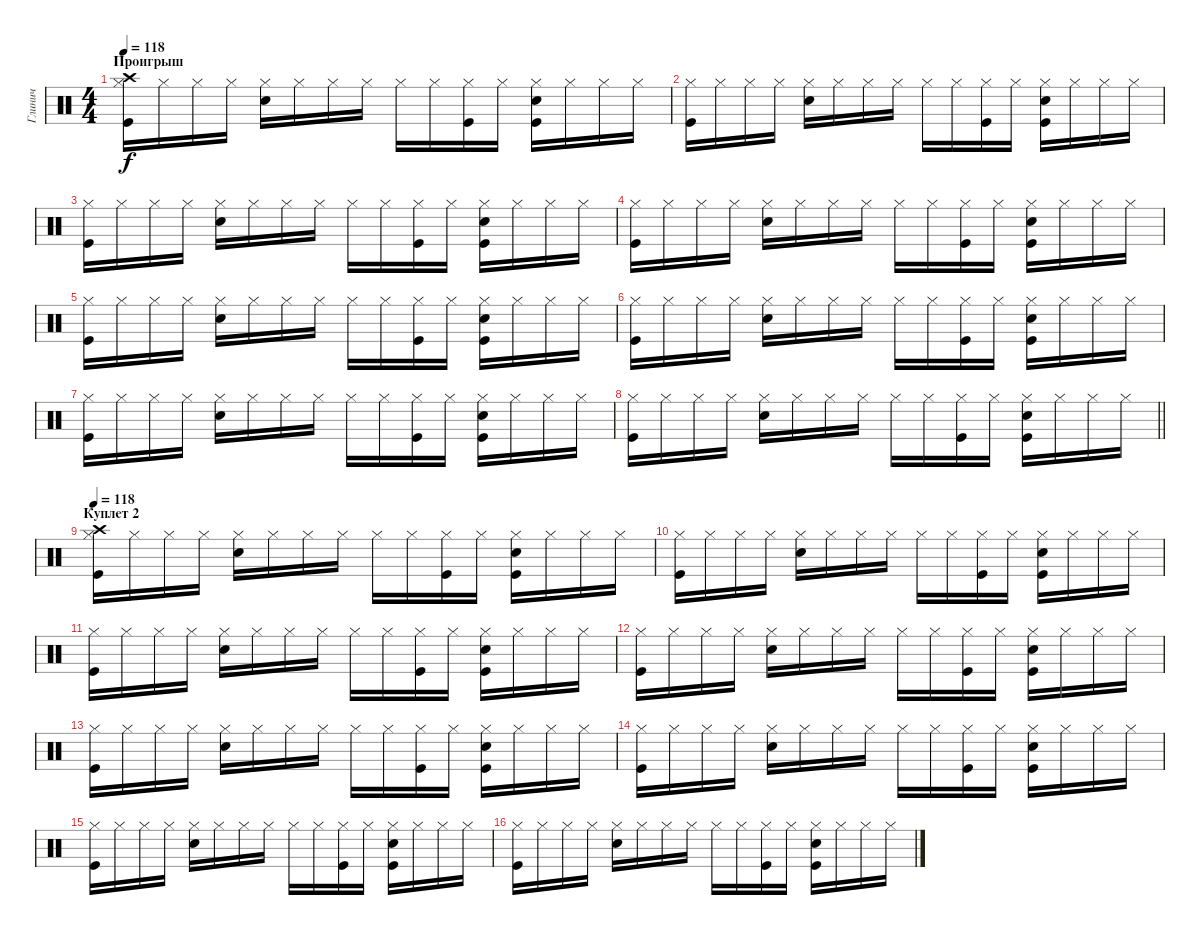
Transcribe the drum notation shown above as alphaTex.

\track ("Глинич" "Глинич") {instrument percussion}
\staff {score}
\articulation defaults
\ts (4 4)
\section ("" "Проигрыш")
\tempo 118
\clef neutral
\ks c
("Hi-Hat (closed)" "Kick (hit)" "Crash high (hit)").16{dy f} "Hi-Hat (closed)".16 "Hi-Hat (closed)".16 "Hi-Hat (closed)".16 ("Hi-Hat (closed)" "Snare (hit) 2").16 "Hi-Hat (closed)".16 "Hi-Hat (closed)".16 "Hi-Hat (closed)".16 "Hi-Hat (closed)".16 "Hi-Hat (closed)".16 ("Hi-Hat (closed)" "Kick (hit)").16 "Hi-Hat (closed)".16 ("Hi-Hat (closed)" "Snare (hit) 2" "Kick (hit)").16 "Hi-Hat (closed)".16 "Hi-Hat (closed)".16 "Hi-Hat (closed)".16 |
("Hi-Hat (closed)" "Kick (hit)").16 "Hi-Hat (closed)".16 "Hi-Hat (closed)".16 "Hi-Hat (closed)".16 ("Hi-Hat (closed)" "Snare (hit) 2").16 "Hi-Hat (closed)".16 "Hi-Hat (closed)".16 "Hi-Hat (closed)".16 "Hi-Hat (closed)".16 "Hi-Hat (closed)".16 ("Hi-Hat (closed)" "Kick (hit)").16 "Hi-Hat (closed)".16 ("Hi-Hat (closed)" "Snare (hit) 2" "Kick (hit)").16 "Hi-Hat (closed)".16 "Hi-Hat (closed)".16 "Hi-Hat (closed)".16 |
("Hi-Hat (closed)" "Kick (hit)").16 "Hi-Hat (closed)".16 "Hi-Hat (closed)".16 "Hi-Hat (closed)".16 ("Hi-Hat (closed)" "Snare (hit) 2").16 "Hi-Hat (closed)".16 "Hi-Hat (closed)".16 "Hi-Hat (closed)".16 "Hi-Hat (closed)".16 "Hi-Hat (closed)".16 ("Hi-Hat (closed)" "Kick (hit)").16 "Hi-Hat (closed)".16 ("Hi-Hat (closed)" "Snare (hit) 2" "Kick (hit)").16 "Hi-Hat (closed)".16 "Hi-Hat (closed)".16 "Hi-Hat (closed)".16 |
("Hi-Hat (closed)" "Kick (hit)").16 "Hi-Hat (closed)".16 "Hi-Hat (closed)".16 "Hi-Hat (closed)".16 ("Hi-Hat (closed)" "Snare (hit) 2").16 "Hi-Hat (closed)".16 "Hi-Hat (closed)".16 "Hi-Hat (closed)".16 "Hi-Hat (closed)".16 "Hi-Hat (closed)".16 ("Hi-Hat (closed)" "Kick (hit)").16 "Hi-Hat (closed)".16 ("Hi-Hat (closed)" "Snare (hit) 2" "Kick (hit)").16 "Hi-Hat (closed)".16 "Hi-Hat (closed)".16 "Hi-Hat (closed)".16 |
("Hi-Hat (closed)" "Kick (hit)").16 "Hi-Hat (closed)".16 "Hi-Hat (closed)".16 "Hi-Hat (closed)".16 ("Hi-Hat (closed)" "Snare (hit) 2").16 "Hi-Hat (closed)".16 "Hi-Hat (closed)".16 "Hi-Hat (closed)".16 "Hi-Hat (closed)".16 "Hi-Hat (closed)".16 ("Hi-Hat (closed)" "Kick (hit)").16 "Hi-Hat (closed)".16 ("Hi-Hat (closed)" "Snare (hit) 2" "Kick (hit)").16 "Hi-Hat (closed)".16 "Hi-Hat (closed)".16 "Hi-Hat (closed)".16 |
("Hi-Hat (closed)" "Kick (hit)").16 "Hi-Hat (closed)".16 "Hi-Hat (closed)".16 "Hi-Hat (closed)".16 ("Hi-Hat (closed)" "Snare (hit) 2").16 "Hi-Hat (closed)".16 "Hi-Hat (closed)".16 "Hi-Hat (closed)".16 "Hi-Hat (closed)".16 "Hi-Hat (closed)".16 ("Hi-Hat (closed)" "Kick (hit)").16 "Hi-Hat (closed)".16 ("Hi-Hat (closed)" "Snare (hit) 2" "Kick (hit)").16 "Hi-Hat (closed)".16 "Hi-Hat (closed)".16 "Hi-Hat (closed)".16 |
("Hi-Hat (closed)" "Kick (hit)").16 "Hi-Hat (closed)".16 "Hi-Hat (closed)".16 "Hi-Hat (closed)".16 ("Hi-Hat (closed)" "Snare (hit) 2").16 "Hi-Hat (closed)".16 "Hi-Hat (closed)".16 "Hi-Hat (closed)".16 "Hi-Hat (closed)".16 "Hi-Hat (closed)".16 ("Hi-Hat (closed)" "Kick (hit)").16 "Hi-Hat (closed)".16 ("Hi-Hat (closed)" "Snare (hit) 2" "Kick (hit)").16 "Hi-Hat (closed)".16 "Hi-Hat (closed)".16 "Hi-Hat (closed)".16 |
\barLineRight lightlight
("Hi-Hat (closed)" "Kick (hit)").16 "Hi-Hat (closed)".16 "Hi-Hat (closed)".16 "Hi-Hat (closed)".16 ("Hi-Hat (closed)" "Snare (hit) 2").16 "Hi-Hat (closed)".16 "Hi-Hat (closed)".16 "Hi-Hat (closed)".16 "Hi-Hat (closed)".16 "Hi-Hat (closed)".16 ("Hi-Hat (closed)" "Kick (hit)").16 "Hi-Hat (closed)".16 ("Hi-Hat (closed)" "Snare (hit) 2" "Kick (hit)").16 "Hi-Hat (closed)".16 "Hi-Hat (closed)".16 "Hi-Hat (closed)".16 |
\section ("" "Куплет 2")
\tempo 118
("Hi-Hat (closed)" "Kick (hit)" "Crash high (hit)").16 "Hi-Hat (closed)".16 "Hi-Hat (closed)".16 "Hi-Hat (closed)".16 ("Hi-Hat (closed)" "Snare (hit) 2").16 "Hi-Hat (closed)".16 "Hi-Hat (closed)".16 "Hi-Hat (closed)".16 "Hi-Hat (closed)".16 "Hi-Hat (closed)".16 ("Hi-Hat (closed)" "Kick (hit)").16 "Hi-Hat (closed)".16 ("Hi-Hat (closed)" "Snare (hit) 2" "Kick (hit)").16 "Hi-Hat (closed)".16 "Hi-Hat (closed)".16 "Hi-Hat (closed)".16 |
("Hi-Hat (closed)" "Kick (hit)").16 "Hi-Hat (closed)".16 "Hi-Hat (closed)".16 "Hi-Hat (closed)".16 ("Hi-Hat (closed)" "Snare (hit) 2").16 "Hi-Hat (closed)".16 "Hi-Hat (closed)".16 "Hi-Hat (closed)".16 "Hi-Hat (closed)".16 "Hi-Hat (closed)".16 ("Hi-Hat (closed)" "Kick (hit)").16 "Hi-Hat (closed)".16 ("Hi-Hat (closed)" "Snare (hit) 2" "Kick (hit)").16 "Hi-Hat (closed)".16 "Hi-Hat (closed)".16 "Hi-Hat (closed)".16 |
("Hi-Hat (closed)" "Kick (hit)").16 "Hi-Hat (closed)".16 "Hi-Hat (closed)".16 "Hi-Hat (closed)".16 ("Hi-Hat (closed)" "Snare (hit) 2").16 "Hi-Hat (closed)".16 "Hi-Hat (closed)".16 "Hi-Hat (closed)".16 "Hi-Hat (closed)".16 "Hi-Hat (closed)".16 ("Hi-Hat (closed)" "Kick (hit)").16 "Hi-Hat (closed)".16 ("Hi-Hat (closed)" "Snare (hit) 2" "Kick (hit)").16 "Hi-Hat (closed)".16 "Hi-Hat (closed)".16 "Hi-Hat (closed)".16 |
("Hi-Hat (closed)" "Kick (hit)").16 "Hi-Hat (closed)".16 "Hi-Hat (closed)".16 "Hi-Hat (closed)".16 ("Hi-Hat (closed)" "Snare (hit) 2").16 "Hi-Hat (closed)".16 "Hi-Hat (closed)".16 "Hi-Hat (closed)".16 "Hi-Hat (closed)".16 "Hi-Hat (closed)".16 ("Hi-Hat (closed)" "Kick (hit)").16 "Hi-Hat (closed)".16 ("Hi-Hat (closed)" "Snare (hit) 2" "Kick (hit)").16 "Hi-Hat (closed)".16 "Hi-Hat (closed)".16 "Hi-Hat (closed)".16 |
("Hi-Hat (closed)" "Kick (hit)").16 "Hi-Hat (closed)".16 "Hi-Hat (closed)".16 "Hi-Hat (closed)".16 ("Hi-Hat (closed)" "Snare (hit) 2").16 "Hi-Hat (closed)".16 "Hi-Hat (closed)".16 "Hi-Hat (closed)".16 "Hi-Hat (closed)".16 "Hi-Hat (closed)".16 ("Hi-Hat (closed)" "Kick (hit)").16 "Hi-Hat (closed)".16 ("Hi-Hat (closed)" "Snare (hit) 2" "Kick (hit)").16 "Hi-Hat (closed)".16 "Hi-Hat (closed)".16 "Hi-Hat (closed)".16 |
("Hi-Hat (closed)" "Kick (hit)").16 "Hi-Hat (closed)".16 "Hi-Hat (closed)".16 "Hi-Hat (closed)".16 ("Hi-Hat (closed)" "Snare (hit) 2").16 "Hi-Hat (closed)".16 "Hi-Hat (closed)".16 "Hi-Hat (closed)".16 "Hi-Hat (closed)".16 "Hi-Hat (closed)".16 ("Hi-Hat (closed)" "Kick (hit)").16 "Hi-Hat (closed)".16 ("Hi-Hat (closed)" "Snare (hit) 2" "Kick (hit)").16 "Hi-Hat (closed)".16 "Hi-Hat (closed)".16 "Hi-Hat (closed)".16 |
("Hi-Hat (closed)" "Kick (hit)").16 "Hi-Hat (closed)".16 "Hi-Hat (closed)".16 "Hi-Hat (closed)".16 ("Hi-Hat (closed)" "Snare (hit) 2").16 "Hi-Hat (closed)".16 "Hi-Hat (closed)".16 "Hi-Hat (closed)".16 "Hi-Hat (closed)".16 "Hi-Hat (closed)".16 ("Hi-Hat (closed)" "Kick (hit)").16 "Hi-Hat (closed)".16 ("Hi-Hat (closed)" "Snare (hit) 2" "Kick (hit)").16 "Hi-Hat (closed)".16 "Hi-Hat (closed)".16 "Hi-Hat (closed)".16 |
("Hi-Hat (closed)" "Kick (hit)").16 "Hi-Hat (closed)".16 "Hi-Hat (closed)".16 "Hi-Hat (closed)".16 ("Hi-Hat (closed)" "Snare (hit) 2").16 "Hi-Hat (closed)".16 "Hi-Hat (closed)".16 "Hi-Hat (closed)".16 "Hi-Hat (closed)".16 "Hi-Hat (closed)".16 ("Hi-Hat (closed)" "Kick (hit)").16 "Hi-Hat (closed)".16 ("Hi-Hat (closed)" "Snare (hit) 2" "Kick (hit)").16 "Hi-Hat (closed)".16 "Hi-Hat (closed)".16 "Hi-Hat (closed)".16
